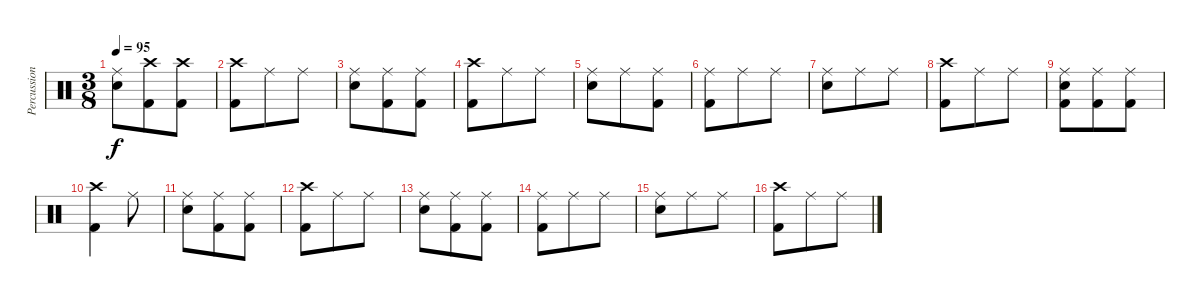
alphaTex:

\track ("Percussion" "Percussion") {instrument percussion}
\staff {score}
\articulation defaults
\ts (3 8)
\tempo 95
\clef neutral
\ks c
("Ride (middle)" "Snare (hit) 2").8{dy f} ("Crash high (hit)" "Kick (hit) 2").8 ("Crash high (hit)" "Kick (hit) 2").8 |
("Crash high (hit)" "Kick (hit) 2").8 "Ride (middle)".8 "Ride (middle)".8 |
("Ride (middle)" "Snare (hit) 2").8 ("Ride (middle)" "Kick (hit) 2").8 ("Ride (middle)" "Kick (hit) 2").8 |
("Crash high (hit)" "Kick (hit) 2").8 "Ride (middle)".8 "Ride (middle)".8 |
("Ride (middle)" "Snare (hit) 2").8 "Ride (middle)".8 ("Ride (middle)" "Kick (hit) 2").8 |
("Ride (middle)" "Kick (hit) 2").8 "Ride (middle)".8 "Ride (middle)".8 |
("Ride (middle)" "Snare (hit) 2").8 "Ride (middle)".8 "Ride (middle)".8 |
("Crash high (hit)" "Kick (hit) 2").8 "Ride (middle)".8 "Ride (middle)".8 |
("Ride (middle)" "Snare (hit) 2" "Kick (hit) 2").8 ("Ride (middle)" "Kick (hit) 2").8 ("Ride (middle)" "Kick (hit) 2").8 |
("Crash high (hit)" "Kick (hit) 2").4 "Ride (middle)".8 |
("Ride (middle)" "Snare (hit) 2").8 ("Ride (middle)" "Kick (hit) 2").8 ("Ride (middle)" "Kick (hit) 2").8 |
("Crash high (hit)" "Kick (hit) 2").8 "Ride (middle)".8 "Ride (middle)".8 |
("Ride (middle)" "Snare (hit) 2").8 ("Ride (middle)" "Kick (hit) 2").8 ("Ride (middle)" "Kick (hit) 2").8 |
("Ride (middle)" "Kick (hit) 2").8 "Ride (middle)".8 "Ride (middle)".8 |
("Ride (middle)" "Snare (hit) 2").8 "Ride (middle)".8 "Ride (middle)".8 |
("Crash high (hit)" "Kick (hit) 2").8 "Ride (middle)".8 "Ride (middle)".8
